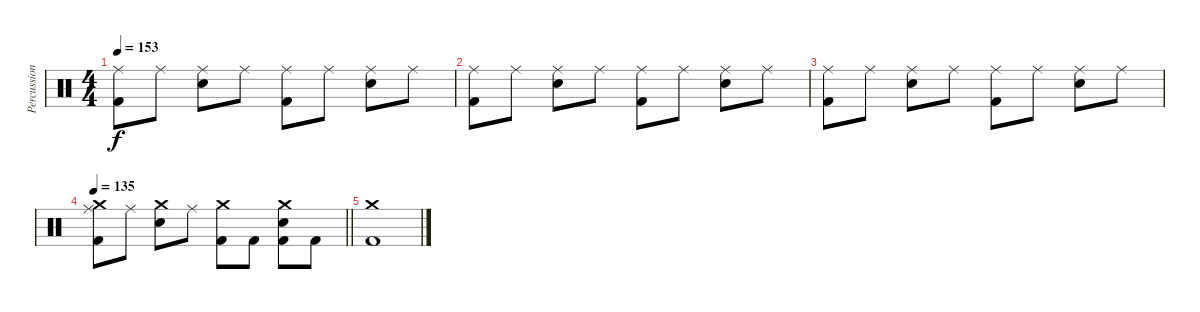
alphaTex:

\track ("Percussion" "Percussion") {instrument percussion}
\staff {score}
\articulation defaults
\ts (4 4)
\tempo 153
\clef neutral
\ks c
("Ride (middle)" "Kick (hit) 2").8{dy f} "Ride (middle)".8 ("Ride (middle)" "Snare (hit) 2").8 "Ride (middle)".8 ("Ride (middle)" "Kick (hit) 2").8 "Ride (middle)".8 ("Ride (middle)" "Snare (hit) 2").8 "Ride (middle)".8 |
("Ride (middle)" "Kick (hit) 2").8 "Ride (middle)".8 ("Ride (middle)" "Snare (hit) 2").8 "Ride (middle)".8 ("Ride (middle)" "Kick (hit) 2").8 "Ride (middle)".8 ("Ride (middle)" "Snare (hit) 2").8 "Ride (middle)".8 |
("Ride (middle)" "Kick (hit) 2").8 "Ride (middle)".8 ("Ride (middle)" "Snare (hit) 2").8 "Ride (middle)".8 ("Ride (middle)" "Kick (hit) 2").8 "Ride (middle)".8 ("Ride (middle)" "Snare (hit) 2").8 "Ride (middle)".8 |
\tempo 135
\barLineRight lightlight
("Ride (middle)" "Crash medium (hit)" "Kick (hit) 2").8 "Ride (middle)".8 ("Crash medium (hit)" "Snare (hit) 2").8 "Ride (middle)".8 ("Crash medium (hit)" "Kick (hit) 2").8 "Kick (hit) 2".8 ("Crash medium (hit)" "Snare (hit) 2" "Kick (hit) 2").8 "Kick (hit) 2".8 |
("Crash medium (hit)" "Kick (hit) 2").1
